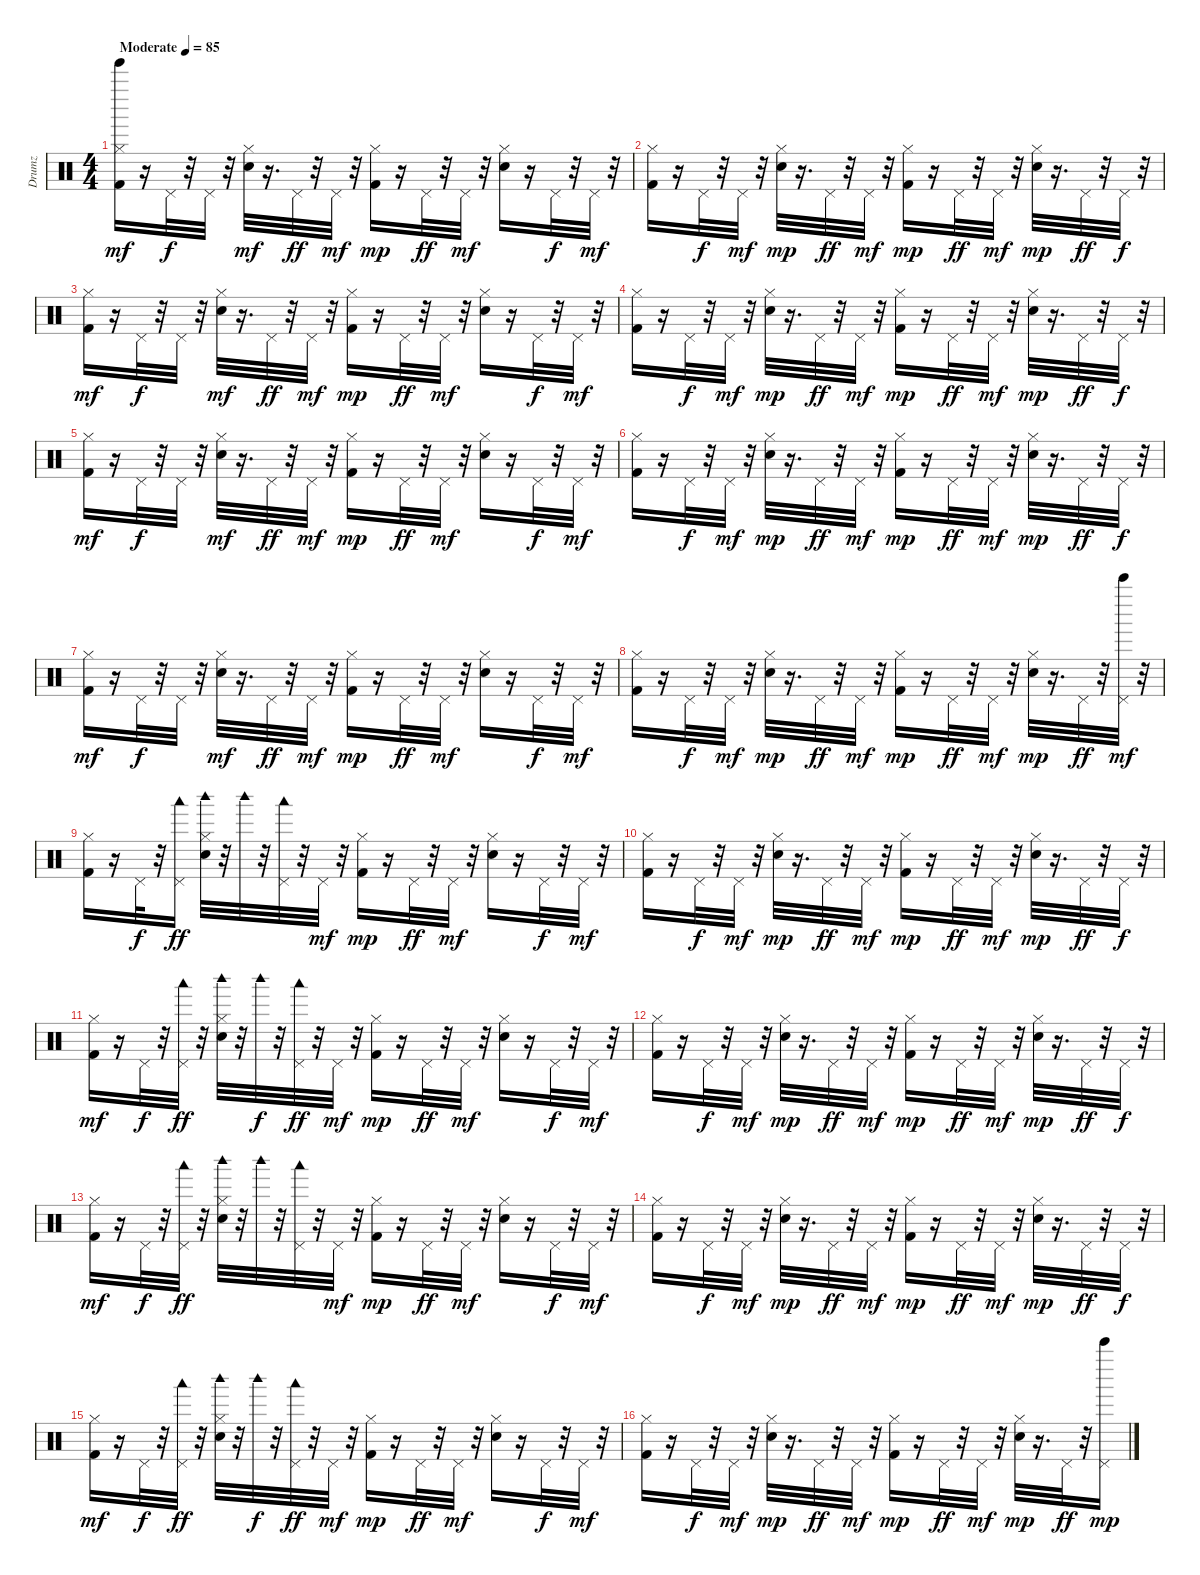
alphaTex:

\track ("Drumz" "Drumz") {instrument percussion}
\staff {score}
\articulation defaults
\ts (4 4)
\tempo (85 "Moderate")
\clef neutral
\ks c
("Tinkle Bell (hit)" "Kick (hit) 2" "Hi-Hat (closed)").16{dy mf} r.16 "Pedal Hi-Hat (hit)".32{dy f} r.32 "Pedal Hi-Hat (hit)".32 r.32 ("Hand Clap (hit)" "Hi-Hat (closed)").32{dy mf} r.16{d} "Pedal Hi-Hat (hit)".32{dy ff} r.32 "Pedal Hi-Hat (hit)".32{dy mf} r.32 ("Kick (hit) 2" "Hi-Hat (closed)").16{dy mp} r.16 "Pedal Hi-Hat (hit)".32{dy ff} r.32 "Pedal Hi-Hat (hit)".32{dy mf} r.32 ("Hand Clap (hit)" "Hi-Hat (closed)").16 r.16 "Pedal Hi-Hat (hit)".32{dy f} r.32 "Pedal Hi-Hat (hit)".32{dy mf} r.32 |
("Kick (hit) 2" "Hi-Hat (closed)").16 r.16 "Pedal Hi-Hat (hit)".32{dy f} r.32 "Pedal Hi-Hat (hit)".32{dy mf} r.32 ("Hand Clap (hit)" "Hi-Hat (closed)").32{dy mp} r.16{d} "Pedal Hi-Hat (hit)".32{dy ff} r.32 "Pedal Hi-Hat (hit)".32{dy mf} r.32 ("Kick (hit) 2" "Hi-Hat (closed)").16{dy mp} r.16 "Pedal Hi-Hat (hit)".32{dy ff} r.32 "Pedal Hi-Hat (hit)".32{dy mf} r.32 ("Hand Clap (hit)" "Hi-Hat (closed)").32{dy mp} r.16{d} "Pedal Hi-Hat (hit)".32{dy ff} r.32 "Pedal Hi-Hat (hit)".32{dy f} r.32 |
("Kick (hit) 2" "Hi-Hat (closed)").16{dy mf} r.16 "Pedal Hi-Hat (hit)".32{dy f} r.32 "Pedal Hi-Hat (hit)".32 r.32 ("Hand Clap (hit)" "Hi-Hat (closed)").32{dy mf} r.16{d} "Pedal Hi-Hat (hit)".32{dy ff} r.32 "Pedal Hi-Hat (hit)".32{dy mf} r.32 ("Kick (hit) 2" "Hi-Hat (closed)").16{dy mp} r.16 "Pedal Hi-Hat (hit)".32{dy ff} r.32 "Pedal Hi-Hat (hit)".32{dy mf} r.32 ("Hand Clap (hit)" "Hi-Hat (closed)").16 r.16 "Pedal Hi-Hat (hit)".32{dy f} r.32 "Pedal Hi-Hat (hit)".32{dy mf} r.32 |
("Kick (hit) 2" "Hi-Hat (closed)").16 r.16 "Pedal Hi-Hat (hit)".32{dy f} r.32 "Pedal Hi-Hat (hit)".32{dy mf} r.32 ("Hand Clap (hit)" "Hi-Hat (closed)").32{dy mp} r.16{d} "Pedal Hi-Hat (hit)".32{dy ff} r.32 "Pedal Hi-Hat (hit)".32{dy mf} r.32 ("Kick (hit) 2" "Hi-Hat (closed)").16{dy mp} r.16 "Pedal Hi-Hat (hit)".32{dy ff} r.32 "Pedal Hi-Hat (hit)".32{dy mf} r.32 ("Hand Clap (hit)" "Hi-Hat (closed)").32{dy mp} r.16{d} "Pedal Hi-Hat (hit)".32{dy ff} r.32 "Pedal Hi-Hat (hit)".32{dy f} r.32 |
("Kick (hit) 2" "Hi-Hat (closed)").16{dy mf} r.16 "Pedal Hi-Hat (hit)".32{dy f} r.32 "Pedal Hi-Hat (hit)".32 r.32 ("Hand Clap (hit)" "Hi-Hat (closed)").32{dy mf} r.16{d} "Pedal Hi-Hat (hit)".32{dy ff} r.32 "Pedal Hi-Hat (hit)".32{dy mf} r.32 ("Kick (hit) 2" "Hi-Hat (closed)").16{dy mp} r.16 "Pedal Hi-Hat (hit)".32{dy ff} r.32 "Pedal Hi-Hat (hit)".32{dy mf} r.32 ("Hand Clap (hit)" "Hi-Hat (closed)").16 r.16 "Pedal Hi-Hat (hit)".32{dy f} r.32 "Pedal Hi-Hat (hit)".32{dy mf} r.32 |
("Kick (hit) 2" "Hi-Hat (closed)").16 r.16 "Pedal Hi-Hat (hit)".32{dy f} r.32 "Pedal Hi-Hat (hit)".32{dy mf} r.32 ("Hand Clap (hit)" "Hi-Hat (closed)").32{dy mp} r.16{d} "Pedal Hi-Hat (hit)".32{dy ff} r.32 "Pedal Hi-Hat (hit)".32{dy mf} r.32 ("Kick (hit) 2" "Hi-Hat (closed)").16{dy mp} r.16 "Pedal Hi-Hat (hit)".32{dy ff} r.32 "Pedal Hi-Hat (hit)".32{dy mf} r.32 ("Hand Clap (hit)" "Hi-Hat (closed)").32{dy mp} r.16{d} "Pedal Hi-Hat (hit)".32{dy ff} r.32 "Pedal Hi-Hat (hit)".32{dy f} r.32 |
("Kick (hit) 2" "Hi-Hat (closed)").16{dy mf} r.16 "Pedal Hi-Hat (hit)".32{dy f} r.32 "Pedal Hi-Hat (hit)".32 r.32 ("Hand Clap (hit)" "Hi-Hat (closed)").32{dy mf} r.16{d} "Pedal Hi-Hat (hit)".32{dy ff} r.32 "Pedal Hi-Hat (hit)".32{dy mf} r.32 ("Kick (hit) 2" "Hi-Hat (closed)").16{dy mp} r.16 "Pedal Hi-Hat (hit)".32{dy ff} r.32 "Pedal Hi-Hat (hit)".32{dy mf} r.32 ("Hand Clap (hit)" "Hi-Hat (closed)").16 r.16 "Pedal Hi-Hat (hit)".32{dy f} r.32 "Pedal Hi-Hat (hit)".32{dy mf} r.32 |
("Kick (hit) 2" "Hi-Hat (closed)").16 r.16 "Pedal Hi-Hat (hit)".32{dy f} r.32 "Pedal Hi-Hat (hit)".32{dy mf} r.32 ("Hand Clap (hit)" "Hi-Hat (closed)").32{dy mp} r.16{d} "Pedal Hi-Hat (hit)".32{dy ff} r.32 "Pedal Hi-Hat (hit)".32{dy mf} r.32 ("Kick (hit) 2" "Hi-Hat (closed)").16{dy mp} r.16 "Pedal Hi-Hat (hit)".32{dy ff} r.32 "Pedal Hi-Hat (hit)".32{dy mf} r.32 ("Hand Clap (hit)" "Hi-Hat (closed)").32{dy mp} r.16{d} "Pedal Hi-Hat (hit)".32{dy ff} r.32 ("Pedal Hi-Hat (hit)" "Bell Tree (hit)").32{dy mf} r.32 |
("Kick (hit) 2" "Hi-Hat (closed)").16{volume 12} r.16 "Pedal Hi-Hat (hit)".32{dy f} r.32 ("Pedal Hi-Hat (hit)" "Woodblock low (hit)").16{dy ff} ("Hand Clap (hit)" "Hi-Hat (closed)" "Woodblock high (hit)").32 r.32 "Woodblock high (hit)".32 r.32 ("Pedal Hi-Hat (hit)" "Woodblock low (hit)").32 r.32 "Pedal Hi-Hat (hit)".32{dy mf} r.32 ("Kick (hit) 2" "Hi-Hat (closed)").16{dy mp} r.16 "Pedal Hi-Hat (hit)".32{dy ff} r.32 "Pedal Hi-Hat (hit)".32{dy mf} r.32 ("Hand Clap (hit)" "Hi-Hat (closed)").16 r.16 "Pedal Hi-Hat (hit)".32{dy f} r.32 "Pedal Hi-Hat (hit)".32{dy mf} r.32 |
("Kick (hit) 2" "Hi-Hat (closed)").16 r.16 "Pedal Hi-Hat (hit)".32{dy f} r.32 "Pedal Hi-Hat (hit)".32{dy mf} r.32 ("Hand Clap (hit)" "Hi-Hat (closed)").32{dy mp} r.16{d} "Pedal Hi-Hat (hit)".32{dy ff} r.32 "Pedal Hi-Hat (hit)".32{dy mf} r.32 ("Kick (hit) 2" "Hi-Hat (closed)").16{dy mp} r.16 "Pedal Hi-Hat (hit)".32{dy ff} r.32 "Pedal Hi-Hat (hit)".32{dy mf} r.32 ("Hand Clap (hit)" "Hi-Hat (closed)").32{dy mp} r.16{d} "Pedal Hi-Hat (hit)".32{dy ff} r.32 "Pedal Hi-Hat (hit)".32{dy f} r.32 |
("Kick (hit) 2" "Hi-Hat (closed)").16{dy mf} r.16 "Pedal Hi-Hat (hit)".32{dy f} r.32 ("Pedal Hi-Hat (hit)" "Woodblock low (hit)").32{dy ff} r.32 ("Hand Clap (hit)" "Hi-Hat (closed)" "Woodblock high (hit)").32 r.32 "Woodblock high (hit)".32{dy f} r.32 ("Pedal Hi-Hat (hit)" "Woodblock low (hit)").32{dy ff} r.32 "Pedal Hi-Hat (hit)".32{dy mf} r.32 ("Kick (hit) 2" "Hi-Hat (closed)").16{dy mp} r.16 "Pedal Hi-Hat (hit)".32{dy ff} r.32 "Pedal Hi-Hat (hit)".32{dy mf} r.32 ("Hand Clap (hit)" "Hi-Hat (closed)").16 r.16 "Pedal Hi-Hat (hit)".32{dy f} r.32 "Pedal Hi-Hat (hit)".32{dy mf} r.32 |
("Kick (hit) 2" "Hi-Hat (closed)").16 r.16 "Pedal Hi-Hat (hit)".32{dy f} r.32 "Pedal Hi-Hat (hit)".32{dy mf} r.32 ("Hand Clap (hit)" "Hi-Hat (closed)").32{dy mp} r.16{d} "Pedal Hi-Hat (hit)".32{dy ff} r.32 "Pedal Hi-Hat (hit)".32{dy mf} r.32 ("Kick (hit) 2" "Hi-Hat (closed)").16{dy mp} r.16 "Pedal Hi-Hat (hit)".32{dy ff} r.32 "Pedal Hi-Hat (hit)".32{dy mf} r.32 ("Hand Clap (hit)" "Hi-Hat (closed)").32{dy mp} r.16{d} "Pedal Hi-Hat (hit)".32{dy ff} r.32 "Pedal Hi-Hat (hit)".32{dy f} r.32 |
("Kick (hit) 2" "Hi-Hat (closed)").16{dy mf} r.16 "Pedal Hi-Hat (hit)".32{dy f} r.32 ("Pedal Hi-Hat (hit)" "Woodblock low (hit)").32{dy ff} r.32 ("Hand Clap (hit)" "Hi-Hat (closed)" "Woodblock high (hit)").32 r.32 "Woodblock high (hit)".32 r.32 ("Pedal Hi-Hat (hit)" "Woodblock low (hit)").32 r.32 "Pedal Hi-Hat (hit)".32{dy mf} r.32 ("Kick (hit) 2" "Hi-Hat (closed)").16{dy mp} r.16 "Pedal Hi-Hat (hit)".32{dy ff} r.32 "Pedal Hi-Hat (hit)".32{dy mf} r.32 ("Hand Clap (hit)" "Hi-Hat (closed)").16 r.16 "Pedal Hi-Hat (hit)".32{dy f} r.32 "Pedal Hi-Hat (hit)".32{dy mf} r.32 |
("Kick (hit) 2" "Hi-Hat (closed)").16 r.16 "Pedal Hi-Hat (hit)".32{dy f} r.32 "Pedal Hi-Hat (hit)".32{dy mf} r.32 ("Hand Clap (hit)" "Hi-Hat (closed)").32{dy mp} r.16{d} "Pedal Hi-Hat (hit)".32{dy ff} r.32 "Pedal Hi-Hat (hit)".32{dy mf} r.32 ("Kick (hit) 2" "Hi-Hat (closed)").16{dy mp} r.16 "Pedal Hi-Hat (hit)".32{dy ff} r.32 "Pedal Hi-Hat (hit)".32{dy mf} r.32 ("Hand Clap (hit)" "Hi-Hat (closed)").32{dy mp} r.16{d} "Pedal Hi-Hat (hit)".32{dy ff} r.32 "Pedal Hi-Hat (hit)".32{dy f} r.32 |
("Kick (hit) 2" "Hi-Hat (closed)").16{dy mf} r.16 "Pedal Hi-Hat (hit)".32{dy f} r.32 ("Pedal Hi-Hat (hit)" "Woodblock low (hit)").32{dy ff} r.32 ("Hand Clap (hit)" "Hi-Hat (closed)" "Woodblock high (hit)").32 r.32 "Woodblock high (hit)".32{dy f} r.32 ("Pedal Hi-Hat (hit)" "Woodblock low (hit)").32{dy ff} r.32 "Pedal Hi-Hat (hit)".32{dy mf} r.32 ("Kick (hit) 2" "Hi-Hat (closed)").16{dy mp} r.16 "Pedal Hi-Hat (hit)".32{dy ff} r.32 "Pedal Hi-Hat (hit)".32{dy mf} r.32 ("Hand Clap (hit)" "Hi-Hat (closed)").16 r.16 "Pedal Hi-Hat (hit)".32{dy f} r.32 "Pedal Hi-Hat (hit)".32{dy mf} r.32 |
("Kick (hit) 2" "Hi-Hat (closed)").16 r.16 "Pedal Hi-Hat (hit)".32{dy f} r.32 "Pedal Hi-Hat (hit)".32{dy mf} r.32 ("Hand Clap (hit)" "Hi-Hat (closed)").32{dy mp} r.16{d} "Pedal Hi-Hat (hit)".32{dy ff} r.32 "Pedal Hi-Hat (hit)".32{dy mf} r.32 ("Kick (hit) 2" "Hi-Hat (closed)").16{dy mp} r.16 "Pedal Hi-Hat (hit)".32{dy ff} r.32 "Pedal Hi-Hat (hit)".32{dy mf} r.32 ("Hand Clap (hit)" "Hi-Hat (closed)").32{dy mp} r.16{d} "Pedal Hi-Hat (hit)".32{dy ff} r.32 ("Pedal Hi-Hat (hit)" "Bell Tree (hit)").16{dy mp}
